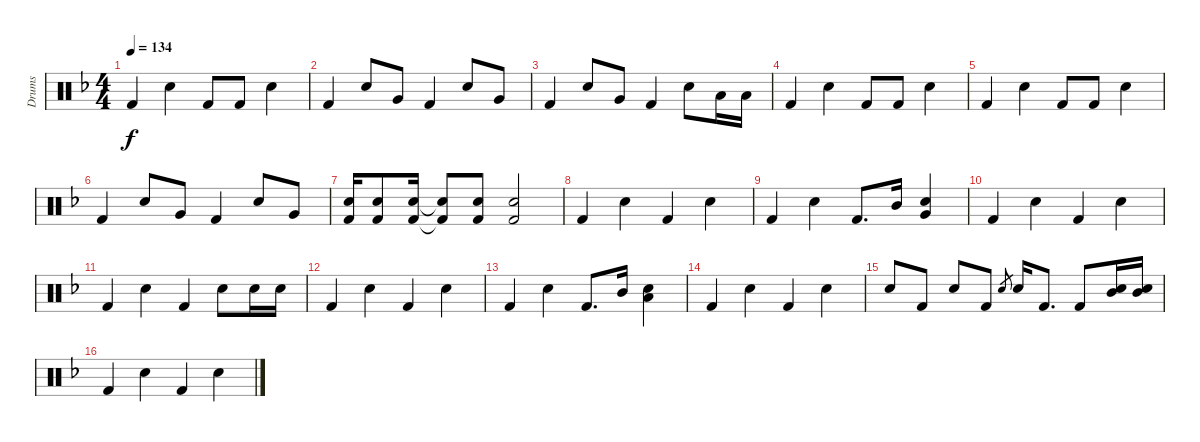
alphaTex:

\track ("Drums" "Drums") {instrument percussion}
\staff {score}
\articulation defaults
\ts (4 4)
\tempo 134
\clef neutral
\ks f "Kick (hit) 2".4{dy f} "Snare (hit) 2".4 "Kick (hit) 2".8 "Kick (hit) 2".8 "Snare (hit) 2".4
|
"Kick (hit) 2".4 "Snare (hit) 2".8 "Very Low Tom (hit)".8 "Kick (hit) 2".4 "Snare (hit) 2".8 "Very Low Tom (hit)".8 |
"Kick (hit) 2".4 "Snare (hit) 2".8 "Very Low Tom (hit)".8 "Kick (hit) 2".4 "Snare (hit) 2".8 "Low Floor Tom (hit)".16 "Low Floor Tom (hit)".16 |
"Kick (hit) 2".4 "Snare (hit) 2".4 "Kick (hit) 2".8 "Kick (hit) 2".8 "Snare (hit) 2".4 |
"Kick (hit) 2".4 "Snare (hit) 2".4 "Kick (hit) 2".8 "Kick (hit) 2".8 "Snare (hit) 2".4 |
"Kick (hit) 2".4 "Snare (hit) 2".8 "Very Low Tom (hit)".8 "Kick (hit) 2".4 "Snare (hit) 2".8 "Very Low Tom (hit)".8 |
("Snare (hit) 2" "Kick (hit) 2").16 ("Snare (hit) 2" "Kick (hit) 2").8 ("Snare (hit) 2" "Kick (hit) 2").16 ("Snare (hit) 2"{t} "Kick (hit) 2"{t}).8 ("Snare (hit) 2" "Kick (hit) 2").8 ("Snare (hit) 2" "Kick (hit) 2").2 |
"Kick (hit) 2".4 "Snare (hit) 2".4 "Kick (hit) 2".4 "Snare (hit) 2".4 |
"Kick (hit) 2".4 "Snare (hit) 2".4 "Kick (hit) 2".8{d} "Mid Tom (hit)".16 ("Snare (hit) 2" "Very Low Tom (hit)").4 |
"Kick (hit) 2".4 "Snare (hit) 2".4 "Kick (hit) 2".4 "Snare (hit) 2".4 |
"Kick (hit) 2".4 "Snare (hit) 2".4 "Kick (hit) 2".4 "Snare (hit) 2".8 "Snare (hit) 2".16 "Snare (hit) 2".16 |
"Kick (hit) 2".4 "Snare (hit) 2".4 "Kick (hit) 2".4 "Snare (hit) 2".4 |
"Kick (hit) 2".4 "Snare (hit) 2".4 "Kick (hit) 2".8{d} "Mid Tom (hit)".16 ("Snare (hit) 2" "Low Floor Tom (hit)").4 |
"Kick (hit) 2".4 "Snare (hit) 2".4 "Kick (hit) 2".4 "Snare (hit) 2".4 |
"Snare (hit) 2".8 "Kick (hit) 2".8 "Snare (hit) 2".8 "Kick (hit) 2".8 "Snare (hit) 2".8{gr} "Snare (hit) 2".16 "Kick (hit) 2".8{d} "Kick (hit) 2".8 ("Snare (hit) 2" "Mid Tom (hit)").16 ("Snare (hit) 2" "Mid Tom (hit)").16 |
"Kick (hit) 2".4 "Snare (hit) 2".4 "Kick (hit) 2".4 "Snare (hit) 2".4
